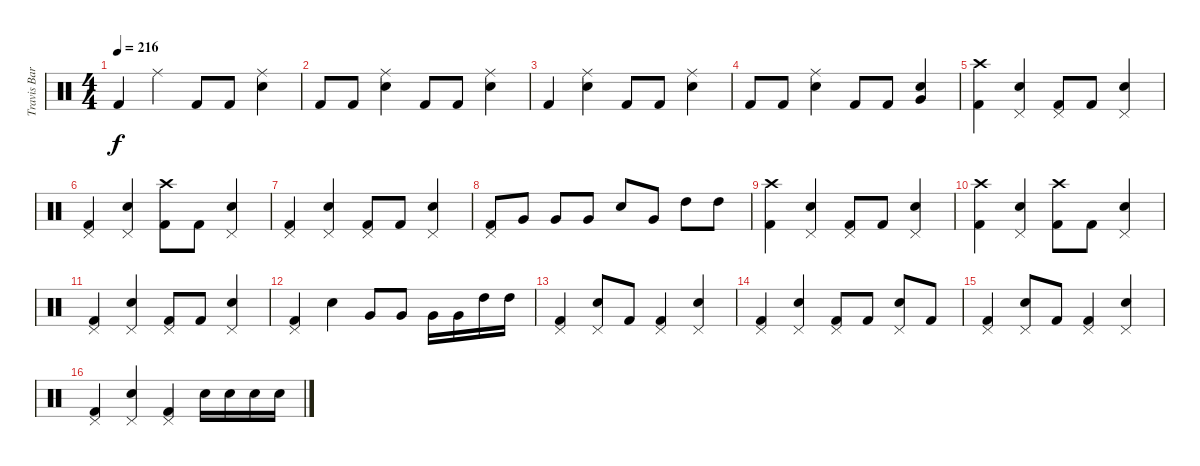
\track ("Travis Barker (Drums)" "Travis Bar") {instrument percussion}
\staff {score}
\articulation defaults
\ts (4 4)
\tempo 216
\clef neutral
\ks c "Kick (hit) 2".4{dy f} "Ride (middle)".4 "Kick (hit) 2".8 "Kick (hit) 2".8
("Ride (middle)" "Electric Snare (hit)").4 |
"Kick (hit) 2".8 "Kick (hit) 2".8 ("Ride (middle)" "Electric Snare (hit)").4 "Kick (hit) 2".8 "Kick (hit) 2".8 ("Ride (middle)" "Electric Snare (hit)").4 |
"Kick (hit) 2".4 ("Ride (middle)" "Electric Snare (hit)").4 "Kick (hit) 2".8 "Kick (hit) 2".8 ("Ride (middle)" "Electric Snare (hit)").4 |
"Kick (hit) 2".8 "Kick (hit) 2".8 ("Ride (middle)" "Electric Snare (hit)").4 "Kick (hit) 2".8 "Kick (hit) 2".8 ("Very Low Tom (hit)" "Electric Snare (hit)").4 |
("Crash high (hit)" "Kick (hit) 2").4 ("Pedal Hi-Hat (hit)" "Electric Snare (hit)").4 ("Pedal Hi-Hat (hit)" "Kick (hit) 2").8 "Kick (hit) 2".8 ("Pedal Hi-Hat (hit)" "Electric Snare (hit)").4 |
("Pedal Hi-Hat (hit)" "Kick (hit) 2").4 ("Pedal Hi-Hat (hit)" "Electric Snare (hit)").4 ("Crash high (hit)" "Kick (hit) 2").8 "Kick (hit) 2".8 ("Pedal Hi-Hat (hit)" "Electric Snare (hit)").4 |
("Pedal Hi-Hat (hit)" "Kick (hit) 2").4 ("Pedal Hi-Hat (hit)" "Electric Snare (hit)").4 ("Pedal Hi-Hat (hit)" "Kick (hit) 2").8 "Kick (hit) 2".8 ("Pedal Hi-Hat (hit)" "Electric Snare (hit)").4 |
("Pedal Hi-Hat (hit)" "Kick (hit) 2").8 "Very Low Tom (hit)".8 "Very Low Tom (hit)".8 "Very Low Tom (hit)".8 "Electric Snare (hit)".8 "Very Low Tom (hit)".8 "High Tom (hit)".8 "High Tom (hit)".8 |
("Crash high (hit)" "Kick (hit) 2").4 ("Pedal Hi-Hat (hit)" "Electric Snare (hit)").4 ("Pedal Hi-Hat (hit)" "Kick (hit) 2").8 "Kick (hit) 2".8 ("Pedal Hi-Hat (hit)" "Electric Snare (hit)").4 |
("Crash high (hit)" "Kick (hit) 2").4 ("Pedal Hi-Hat (hit)" "Electric Snare (hit)").4 ("Crash high (hit)" "Kick (hit) 2").8 "Kick (hit) 2".8 ("Pedal Hi-Hat (hit)" "Electric Snare (hit)").4 |
("Pedal Hi-Hat (hit)" "Kick (hit) 2").4 ("Pedal Hi-Hat (hit)" "Electric Snare (hit)").4 ("Pedal Hi-Hat (hit)" "Kick (hit) 2").8 "Kick (hit) 2".8 ("Pedal Hi-Hat (hit)" "Electric Snare (hit)").4 |
("Pedal Hi-Hat (hit)" "Kick (hit) 2").4 "Electric Snare (hit)".4 "Very Low Tom (hit)".8 "Very Low Tom (hit)".8 "Very Low Tom (hit)".16 "Very Low Tom (hit)".16 "High Tom (hit)".16 "High Tom (hit)".16 |
("Pedal Hi-Hat (hit)" "Kick (hit) 2").4 ("Pedal Hi-Hat (hit)" "Electric Snare (hit)").8 "Kick (hit) 2".8 ("Pedal Hi-Hat (hit)" "Kick (hit) 2").4 ("Pedal Hi-Hat (hit)" "Electric Snare (hit)").4 |
("Pedal Hi-Hat (hit)" "Kick (hit) 2").4 ("Pedal Hi-Hat (hit)" "Electric Snare (hit)").4 ("Pedal Hi-Hat (hit)" "Kick (hit) 2").8 "Kick (hit) 2".8 ("Pedal Hi-Hat (hit)" "Electric Snare (hit)").8 "Kick (hit) 2".8 |
("Pedal Hi-Hat (hit)" "Kick (hit) 2").4 ("Pedal Hi-Hat (hit)" "Electric Snare (hit)").8 "Kick (hit) 2".8 ("Pedal Hi-Hat (hit)" "Kick (hit) 2").4 ("Pedal Hi-Hat (hit)" "Electric Snare (hit)").4 |
("Pedal Hi-Hat (hit)" "Kick (hit) 2").4 ("Pedal Hi-Hat (hit)" "Electric Snare (hit)").4 ("Pedal Hi-Hat (hit)" "Kick (hit) 2").4 "Electric Snare (hit)".16 "Electric Snare (hit)".16 "Electric Snare (hit)".16 "Electric Snare (hit)".16
